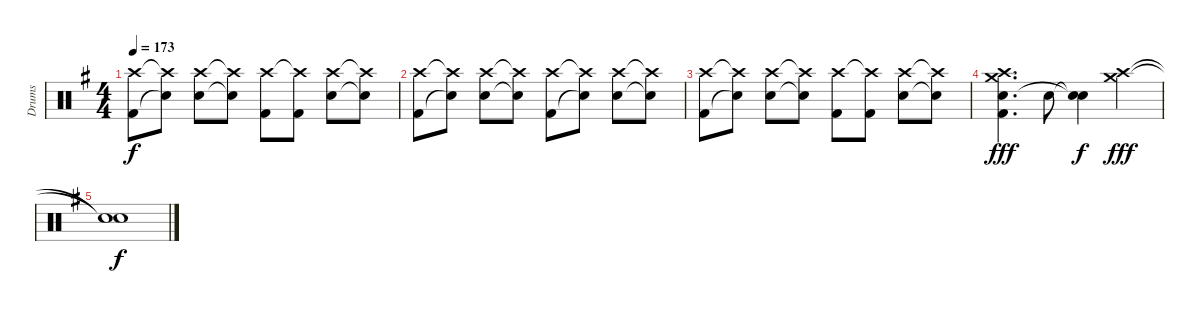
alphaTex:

\track ("Drums" "Drums") {instrument percussion}
\staff {score}
\articulation defaults
\ts (4 4)
\tempo 173
\clef neutral
\ks g
("Kick (hit) 2" "Crash high (hit)").8{dy f} ("Snare (hit)"{t} "Crash high (hit)"{t}).8 ("Snare (hit) 2" "Crash high (hit)").8 ("Snare (hit)"{t} "Crash high (hit)"{t}).8 ("Kick (hit) 2" "Crash high (hit)").8 ("Kick (hit) 2" "Crash high (hit)"{t}).8 ("Snare (hit) 2" "Crash high (hit)").8 ("Snare (hit)"{t} "Crash high (hit)"{t}).8 |
("Kick (hit) 2" "Crash high (hit)").8 ("Snare (hit)"{t} "Crash high (hit)"{t}).8 ("Snare (hit) 2" "Crash high (hit)").8 ("Snare (hit)"{t} "Crash high (hit)"{t}).8 ("Kick (hit) 2" "Crash high (hit)").8 ("Snare (hit)"{t} "Crash high (hit)"{t}).8 ("Snare (hit) 2" "Crash high (hit)").8 ("Snare (hit)"{t} "Crash high (hit)"{t}).8 |
("Kick (hit) 2" "Crash high (hit)").8 ("Snare (hit)"{t} "Crash high (hit)"{t}).8 ("Snare (hit) 2" "Crash high (hit)").8 ("Snare (hit)"{t} "Crash high (hit)"{t}).8 ("Kick (hit) 2" "Crash high (hit)").8 ("Kick (hit) 2" "Crash high (hit)"{t}).8 ("Snare (hit) 2" "Crash high (hit)").8 ("Snare (hit)"{t} "Crash high (hit)"{t}).8 |
("Kick (hit) 2" "Snare (hit) 2" "Crash high (hit)" "Crash medium (hit)").4{d dy fff} "Snare (hit) 2".8 ("Snare (hit)"{t} "Snare (hit)"{t}).4{dy f} ("Crash high (hit)" "Crash medium (hit)").4{dy fff} |
("Snare (hit)"{t} "Snare (hit)"{t}).1{dy f}
